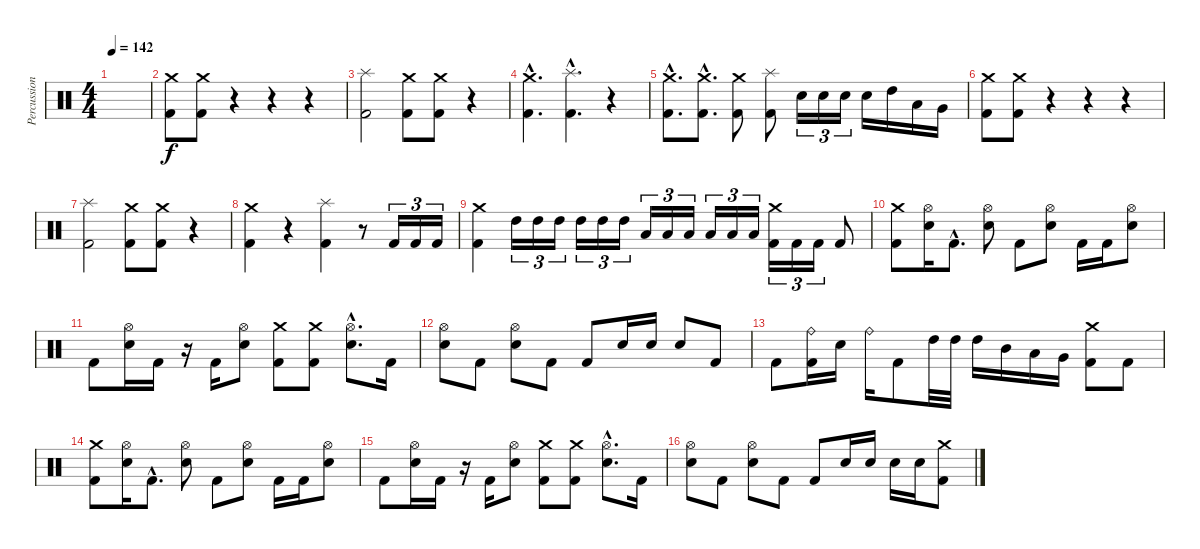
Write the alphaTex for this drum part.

\track ("Percussion" "Percussion") {instrument percussion}
\staff {score}
\articulation defaults
\ts (4 4)
\tempo 142
\clef neutral
\ks c
|
("Crash medium (hit)" "Kick (hit) 2").8 ("Crash medium (hit)" "Kick (hit) 2").8 r.4 r.4 r.4 |
("Splash (hit)" "Kick (hit) 2").2 ("Crash medium (hit)" "Kick (hit) 2").8 ("Crash medium (hit)" "Kick (hit) 2").8 r.4 |
("Crash medium (hit)"{hac} "Kick (hit) 2"{hac}).4{d} ("Splash (hit)"{hac} "Kick (hit) 2"{hac}).4{d} r.4 |
("Crash medium (hit)"{hac} "Kick (hit) 2"{hac}).8{d} ("Crash medium (hit)"{hac} "Kick (hit) 2"{hac}).8{d} ("Crash medium (hit)" "Kick (hit) 2").8 ("Splash (hit)" "Kick (hit) 2").8 "Electric Snare (hit)".16{tu (3 2)} "Electric Snare (hit)".16{tu (3 2)} "Electric Snare (hit)".16{tu (3 2)} "Electric Snare (hit)".16 "High Tom (hit)".16 "Low Tom (hit)".16 "Very Low Tom (hit)".16 |
("Crash medium (hit)" "Kick (hit) 2").8 ("Crash medium (hit)" "Kick (hit) 2").8 r.4 r.4 r.4 |
("Splash (hit)" "Kick (hit) 2").2 ("Crash medium (hit)" "Kick (hit) 2").8 ("Crash medium (hit)" "Kick (hit) 2").8 r.4 |
("Crash medium (hit)" "Kick (hit) 2").4 r.4 ("Splash (hit)" "Kick (hit) 2").4 r.8 "Kick (hit) 2".16{tu (3 2)} "Kick (hit) 2".16{tu (3 2)} "Kick (hit) 2".16{tu (3 2)} |
("Crash medium (hit)" "Kick (hit) 2").4 "High Tom (hit)".16{tu (3 2)} "High Tom (hit)".16{tu (3 2)} "High Tom (hit)".16{tu (3 2)} "High Tom (hit)".16{tu (3 2)} "High Tom (hit)".16{tu (3 2)} "High Tom (hit)".16{tu (3 2)} "Low Tom (hit)".16{tu (3 2)} "Low Tom (hit)".16{tu (3 2)} "Low Tom (hit)".16{tu (3 2)} "Low Tom (hit)".16{tu (3 2)} "Low Tom (hit)".16{tu (3 2)} "Low Tom (hit)".16{tu (3 2)} ("Crash medium (hit)" "Kick (hit) 2").16{tu (3 2)} "Kick (hit) 2".16{tu (3 2)} "Kick (hit) 2".16{tu (3 2)} "Kick (hit) 2".8 |
("Crash medium (hit)" "Kick (hit) 2").8 ("Hi-Hat (open)" "Electric Snare (hit)").16 "Kick (hit) 2"{hac}.8{d} ("Hi-Hat (open)" "Electric Snare (hit)").8 "Kick (hit) 2".8 ("Hi-Hat (open)" "Electric Snare (hit)").8 "Kick (hit) 2".16 "Kick (hit) 2".16 ("Hi-Hat (open)" "Electric Snare (hit)").8 |
"Kick (hit) 2".8 ("Hi-Hat (open)" "Electric Snare (hit)").16 "Kick (hit) 2".16 r.16 "Kick (hit) 2".16 ("Hi-Hat (open)" "Electric Snare (hit)").8 ("Crash medium (hit)" "Kick (hit) 2").8 ("Crash medium (hit)" "Kick (hit) 2").8 ("Hi-Hat (open)"{hac} "Electric Snare (hit)"{hac}).8{d} "Kick (hit) 2".16 |
("Hi-Hat (open)" "Electric Snare (hit)").8 "Kick (hit) 2".8 ("Hi-Hat (open)" "Electric Snare (hit)").8 "Kick (hit) 2".8 "Kick (hit) 2".8 "Electric Snare (hit)".16 "Electric Snare (hit)".16 "Electric Snare (hit)".8 "Kick (hit) 2".8 |
"Kick (hit) 2".8 ("Ride (bell)" "Kick (hit) 2").16 "Electric Snare (hit)".16 "Ride (bell)".16 "Kick (hit) 2".8 "High Tom (hit)".32 "High Tom (hit)".32 "High Tom (hit)".16 "Mid Tom (hit)".16 "Low Tom (hit)".16 "Very Low Tom (hit)".16 ("Crash medium (hit)" "Kick (hit) 2").8 "Kick (hit) 2".8 |
("Crash medium (hit)" "Kick (hit) 2").8 ("Hi-Hat (open)" "Electric Snare (hit)").16 "Kick (hit) 2"{hac}.8{d} ("Hi-Hat (open)" "Electric Snare (hit)").8 "Kick (hit) 2".8 ("Hi-Hat (open)" "Electric Snare (hit)").8 "Kick (hit) 2".16 "Kick (hit) 2".16 ("Hi-Hat (open)" "Electric Snare (hit)").8 |
"Kick (hit) 2".8 ("Hi-Hat (open)" "Electric Snare (hit)").16 "Kick (hit) 2".16 r.16 "Kick (hit) 2".16 ("Hi-Hat (open)" "Electric Snare (hit)").8 ("Crash medium (hit)" "Kick (hit) 2").8 ("Crash medium (hit)" "Kick (hit) 2").8 ("Hi-Hat (open)"{hac} "Electric Snare (hit)"{hac}).8{d} "Kick (hit) 2".16 |
("Hi-Hat (open)" "Electric Snare (hit)").8 "Kick (hit) 2".8 ("Hi-Hat (open)" "Electric Snare (hit)").8 "Kick (hit) 2".8 "Kick (hit) 2".8 "Electric Snare (hit)".16 "Electric Snare (hit)".16 "Electric Snare (hit)".16 "Electric Snare (hit)".16 ("Crash medium (hit)" "Kick (hit) 2").8
